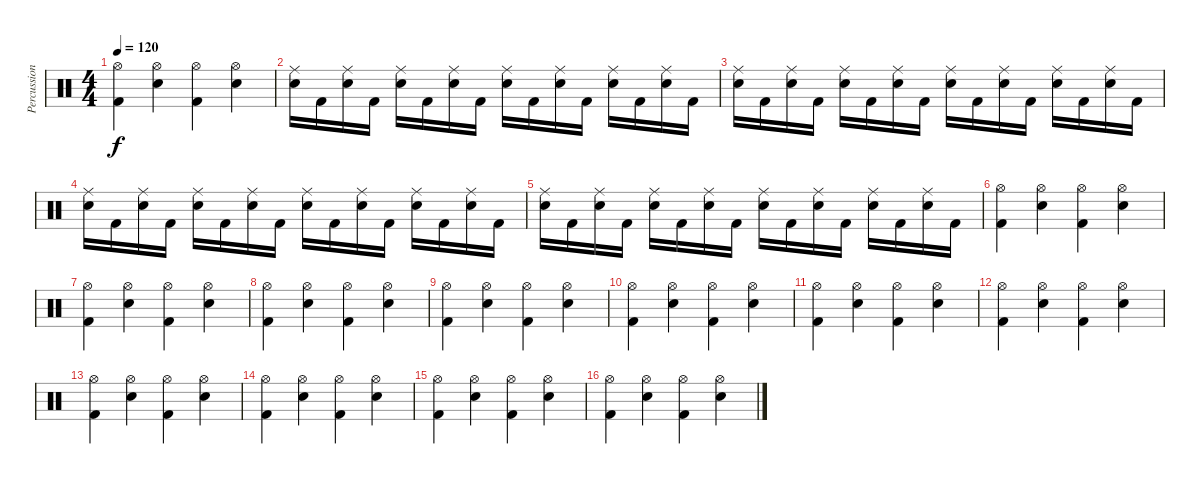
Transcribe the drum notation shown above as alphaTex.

\track ("Percussion" "Percussion") {instrument percussion}
\staff {score}
\articulation defaults
\ts (4 4)
\tempo 120
\clef neutral
\ks c
("Hi-Hat (open)" "Kick (hit) 2").4{dy f} ("Hi-Hat (open)" "Electric Snare (hit)").4 ("Hi-Hat (open)" "Kick (hit) 2").4 ("Hi-Hat (open)" "Electric Snare (hit)").4 |
("Electric Snare (hit)" "Ride (middle)").16 "Kick (hit) 2".16 ("Electric Snare (hit)" "Ride (middle)").16 "Kick (hit) 2".16 ("Electric Snare (hit)" "Ride (middle)").16 "Kick (hit) 2".16 ("Electric Snare (hit)" "Ride (middle)").16 "Kick (hit) 2".16 ("Electric Snare (hit)" "Ride (middle)").16 "Kick (hit) 2".16 ("Electric Snare (hit)" "Ride (middle)").16 "Kick (hit) 2".16 ("Electric Snare (hit)" "Ride (middle)").16 "Kick (hit) 2".16 ("Electric Snare (hit)" "Ride (middle)").16 "Kick (hit) 2".16 |
("Electric Snare (hit)" "Ride (middle)").16 "Kick (hit) 2".16 ("Electric Snare (hit)" "Ride (middle)").16 "Kick (hit) 2".16 ("Electric Snare (hit)" "Ride (middle)").16 "Kick (hit) 2".16 ("Electric Snare (hit)" "Ride (middle)").16 "Kick (hit) 2".16 ("Electric Snare (hit)" "Ride (middle)").16 "Kick (hit) 2".16 ("Electric Snare (hit)" "Ride (middle)").16 "Kick (hit) 2".16 ("Electric Snare (hit)" "Ride (middle)").16 "Kick (hit) 2".16 ("Electric Snare (hit)" "Ride (middle)").16 "Kick (hit) 2".16 |
("Electric Snare (hit)" "Ride (middle)").16 "Kick (hit) 2".16 ("Electric Snare (hit)" "Ride (middle)").16 "Kick (hit) 2".16 ("Electric Snare (hit)" "Ride (middle)").16 "Kick (hit) 2".16 ("Electric Snare (hit)" "Ride (middle)").16 "Kick (hit) 2".16 ("Electric Snare (hit)" "Ride (middle)").16 "Kick (hit) 2".16 ("Electric Snare (hit)" "Ride (middle)").16 "Kick (hit) 2".16 ("Electric Snare (hit)" "Ride (middle)").16 "Kick (hit) 2".16 ("Electric Snare (hit)" "Ride (middle)").16 "Kick (hit) 2".16 |
("Electric Snare (hit)" "Ride (middle)").16 "Kick (hit) 2".16 ("Electric Snare (hit)" "Ride (middle)").16 "Kick (hit) 2".16 ("Electric Snare (hit)" "Ride (middle)").16 "Kick (hit) 2".16 ("Electric Snare (hit)" "Ride (middle)").16 "Kick (hit) 2".16 ("Electric Snare (hit)" "Ride (middle)").16 "Kick (hit) 2".16 ("Electric Snare (hit)" "Ride (middle)").16 "Kick (hit) 2".16 ("Electric Snare (hit)" "Ride (middle)").16 "Kick (hit) 2".16 ("Electric Snare (hit)" "Ride (middle)").16 "Kick (hit) 2".16 |
("Hi-Hat (open)" "Kick (hit) 2").4 ("Hi-Hat (open)" "Electric Snare (hit)").4 ("Hi-Hat (open)" "Kick (hit) 2").4 ("Hi-Hat (open)" "Electric Snare (hit)").4 |
("Hi-Hat (open)" "Kick (hit) 2").4 ("Hi-Hat (open)" "Electric Snare (hit)").4 ("Hi-Hat (open)" "Kick (hit) 2").4 ("Hi-Hat (open)" "Electric Snare (hit)").4 |
("Hi-Hat (open)" "Kick (hit) 2").4 ("Hi-Hat (open)" "Electric Snare (hit)").4 ("Hi-Hat (open)" "Kick (hit) 2").4 ("Hi-Hat (open)" "Electric Snare (hit)").4 |
("Hi-Hat (open)" "Kick (hit) 2").4 ("Hi-Hat (open)" "Electric Snare (hit)").4 ("Hi-Hat (open)" "Kick (hit) 2").4 ("Hi-Hat (open)" "Electric Snare (hit)").4 |
("Hi-Hat (open)" "Kick (hit) 2").4 ("Hi-Hat (open)" "Electric Snare (hit)").4 ("Hi-Hat (open)" "Kick (hit) 2").4 ("Hi-Hat (open)" "Electric Snare (hit)").4 |
("Hi-Hat (open)" "Kick (hit) 2").4 ("Hi-Hat (open)" "Electric Snare (hit)").4 ("Hi-Hat (open)" "Kick (hit) 2").4 ("Hi-Hat (open)" "Electric Snare (hit)").4 |
("Hi-Hat (open)" "Kick (hit) 2").4 ("Hi-Hat (open)" "Electric Snare (hit)").4 ("Hi-Hat (open)" "Kick (hit) 2").4 ("Hi-Hat (open)" "Electric Snare (hit)").4 |
("Hi-Hat (open)" "Kick (hit) 2").4 ("Hi-Hat (open)" "Electric Snare (hit)").4 ("Hi-Hat (open)" "Kick (hit) 2").4 ("Hi-Hat (open)" "Electric Snare (hit)").4 |
("Hi-Hat (open)" "Kick (hit) 2").4 ("Hi-Hat (open)" "Electric Snare (hit)").4 ("Hi-Hat (open)" "Kick (hit) 2").4 ("Hi-Hat (open)" "Electric Snare (hit)").4 |
("Hi-Hat (open)" "Kick (hit) 2").4 ("Hi-Hat (open)" "Electric Snare (hit)").4 ("Hi-Hat (open)" "Kick (hit) 2").4 ("Hi-Hat (open)" "Electric Snare (hit)").4 |
("Hi-Hat (open)" "Kick (hit) 2").4 ("Hi-Hat (open)" "Electric Snare (hit)").4 ("Hi-Hat (open)" "Kick (hit) 2").4 ("Hi-Hat (open)" "Electric Snare (hit)").4
